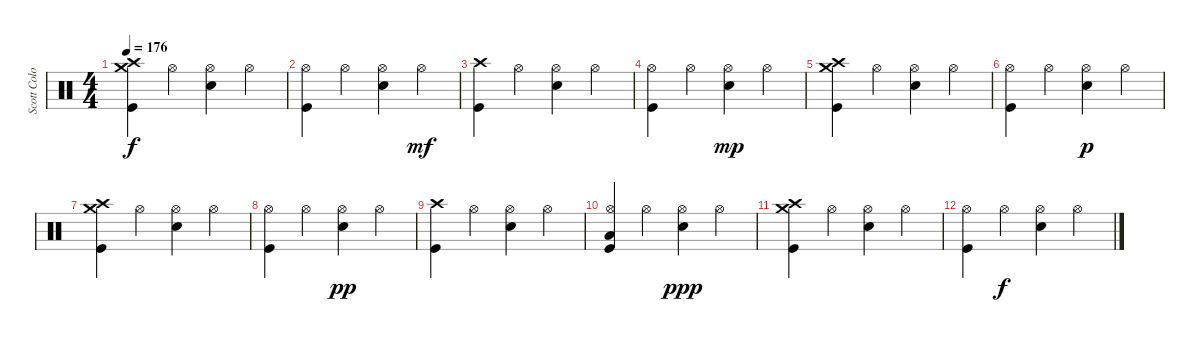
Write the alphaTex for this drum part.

\track ("Scott Colombus" "Scott Colo") {instrument percussion}
\staff {score}
\articulation defaults
\ts (4 4)
\tempo 176
\clef neutral
\ks c
("Crash medium (hit)" "Crash high (hit)" "Kick (hit)").4{dy f} "Hi-Hat (open)".4 ("Hi-Hat (open)" "Snare (hit) 2").4 "Hi-Hat (open)".4 |
("Hi-Hat (open)" "Kick (hit)").4 "Hi-Hat (open)".4 ("Hi-Hat (open)" "Snare (hit) 2").4 "Hi-Hat (open)".4{dy mf} |
("Crash high (hit)" "Kick (hit)").4 "Hi-Hat (open)".4 ("Hi-Hat (open)" "Snare (hit) 2").4 "Hi-Hat (open)".4 |
("Hi-Hat (open)" "Kick (hit)").4 "Hi-Hat (open)".4 ("Hi-Hat (open)" "Snare (hit) 2").4{dy mp} "Hi-Hat (open)".4 |
("Crash medium (hit)" "Crash high (hit)" "Kick (hit)").4 "Hi-Hat (open)".4 ("Hi-Hat (open)" "Snare (hit) 2").4 "Hi-Hat (open)".4 |
("Hi-Hat (open)" "Kick (hit)").4 "Hi-Hat (open)".4 ("Hi-Hat (open)" "Snare (hit) 2").4{dy p} "Hi-Hat (open)".4 |
("Crash medium (hit)" "Crash high (hit)" "Kick (hit)").4 "Hi-Hat (open)".4 ("Hi-Hat (open)" "Snare (hit) 2").4 "Hi-Hat (open)".4 |
("Hi-Hat (open)" "Kick (hit)").4 "Hi-Hat (open)".4 ("Hi-Hat (open)" "Snare (hit) 2").4{dy pp} "Hi-Hat (open)".4 |
("Crash high (hit)" "Kick (hit)").4 "Hi-Hat (open)".4 ("Hi-Hat (open)" "Snare (hit) 2").4 "Hi-Hat (open)".4 |
("Low Floor Tom (hit)" "Hi-Hat (open)" "Kick (hit)").4 "Hi-Hat (open)".4 ("Hi-Hat (open)" "Snare (hit) 2").4{dy ppp} "Hi-Hat (open)".4 |
("Crash medium (hit)" "Crash high (hit)" "Kick (hit)").4 "Hi-Hat (open)".4 ("Hi-Hat (open)" "Snare (hit) 2").4 "Hi-Hat (open)".4 |
("Hi-Hat (open)" "Kick (hit)").4 "Hi-Hat (open)".4{dy f} ("Hi-Hat (open)" "Snare (hit) 2").4 "Hi-Hat (open)".4
